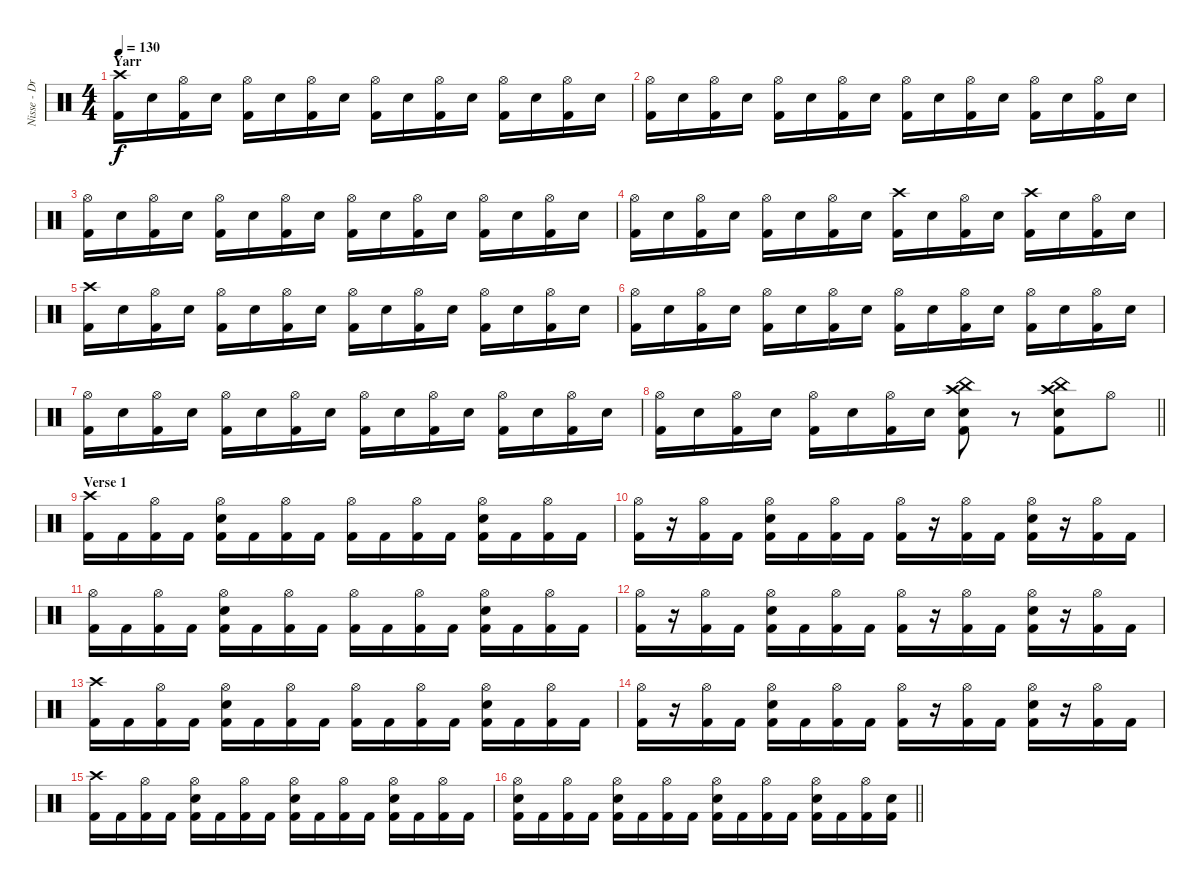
\track ("Nisse - Drums" "Nisse - Dr") {instrument percussion}
\staff {score}
\articulation defaults
\ts (4 4)
\section ("" "Yarr")
\tempo 130
\clef neutral
\ks c
("Crash high (hit)" "Kick (hit) 2").16{dy f} "Electric Snare (hit)".16 ("Hi-Hat (open)" "Kick (hit) 2").16 "Electric Snare (hit)".16 ("Hi-Hat (open)" "Kick (hit) 2").16 "Electric Snare (hit)".16 ("Hi-Hat (open)" "Kick (hit) 2").16 "Electric Snare (hit)".16 ("Hi-Hat (open)" "Kick (hit) 2").16 "Electric Snare (hit)".16 ("Hi-Hat (open)" "Kick (hit) 2").16 "Electric Snare (hit)".16 ("Hi-Hat (open)" "Kick (hit) 2").16 "Electric Snare (hit)".16 ("Hi-Hat (open)" "Kick (hit) 2").16 "Electric Snare (hit)".16 |
("Hi-Hat (open)" "Kick (hit) 2").16 "Electric Snare (hit)".16 ("Hi-Hat (open)" "Kick (hit) 2").16 "Electric Snare (hit)".16 ("Hi-Hat (open)" "Kick (hit) 2").16 "Electric Snare (hit)".16 ("Hi-Hat (open)" "Kick (hit) 2").16 "Electric Snare (hit)".16 ("Hi-Hat (open)" "Kick (hit) 2").16 "Electric Snare (hit)".16 ("Hi-Hat (open)" "Kick (hit) 2").16 "Electric Snare (hit)".16 ("Hi-Hat (open)" "Kick (hit) 2").16 "Electric Snare (hit)".16 ("Hi-Hat (open)" "Kick (hit) 2").16 "Electric Snare (hit)".16 |
("Hi-Hat (open)" "Kick (hit) 2").16 "Electric Snare (hit)".16 ("Hi-Hat (open)" "Kick (hit) 2").16 "Electric Snare (hit)".16 ("Hi-Hat (open)" "Kick (hit) 2").16 "Electric Snare (hit)".16 ("Hi-Hat (open)" "Kick (hit) 2").16 "Electric Snare (hit)".16 ("Hi-Hat (open)" "Kick (hit) 2").16 "Electric Snare (hit)".16 ("Hi-Hat (open)" "Kick (hit) 2").16 "Electric Snare (hit)".16 ("Hi-Hat (open)" "Kick (hit) 2").16 "Electric Snare (hit)".16 ("Hi-Hat (open)" "Kick (hit) 2").16 "Electric Snare (hit)".16 |
("Hi-Hat (open)" "Kick (hit) 2").16 "Electric Snare (hit)".16 ("Hi-Hat (open)" "Kick (hit) 2").16 "Electric Snare (hit)".16 ("Hi-Hat (open)" "Kick (hit) 2").16 "Electric Snare (hit)".16 ("Hi-Hat (open)" "Kick (hit) 2").16 "Electric Snare (hit)".16 ("Crash high (hit)" "Kick (hit) 2").16 "Electric Snare (hit)".16 ("Hi-Hat (open)" "Kick (hit) 2").16 "Electric Snare (hit)".16 ("Crash high (hit)" "Kick (hit) 2").16 "Electric Snare (hit)".16 ("Hi-Hat (open)" "Kick (hit) 2").16 "Electric Snare (hit)".16 |
("Crash high (hit)" "Kick (hit) 2").16 "Electric Snare (hit)".16 ("Hi-Hat (open)" "Kick (hit) 2").16 "Electric Snare (hit)".16 ("Hi-Hat (open)" "Kick (hit) 2").16 "Electric Snare (hit)".16 ("Hi-Hat (open)" "Kick (hit) 2").16 "Electric Snare (hit)".16 ("Hi-Hat (open)" "Kick (hit) 2").16 "Electric Snare (hit)".16 ("Hi-Hat (open)" "Kick (hit) 2").16 "Electric Snare (hit)".16 ("Hi-Hat (open)" "Kick (hit) 2").16 "Electric Snare (hit)".16 ("Hi-Hat (open)" "Kick (hit) 2").16 "Electric Snare (hit)".16 |
("Hi-Hat (open)" "Kick (hit) 2").16 "Electric Snare (hit)".16 ("Hi-Hat (open)" "Kick (hit) 2").16 "Electric Snare (hit)".16 ("Hi-Hat (open)" "Kick (hit) 2").16 "Electric Snare (hit)".16 ("Hi-Hat (open)" "Kick (hit) 2").16 "Electric Snare (hit)".16 ("Hi-Hat (open)" "Kick (hit) 2").16 "Electric Snare (hit)".16 ("Hi-Hat (open)" "Kick (hit) 2").16 "Electric Snare (hit)".16 ("Hi-Hat (open)" "Kick (hit) 2").16 "Electric Snare (hit)".16 ("Hi-Hat (open)" "Kick (hit) 2").16 "Electric Snare (hit)".16 |
("Hi-Hat (open)" "Kick (hit) 2").16 "Electric Snare (hit)".16 ("Hi-Hat (open)" "Kick (hit) 2").16 "Electric Snare (hit)".16 ("Hi-Hat (open)" "Kick (hit) 2").16 "Electric Snare (hit)".16 ("Hi-Hat (open)" "Kick (hit) 2").16 "Electric Snare (hit)".16 ("Hi-Hat (open)" "Kick (hit) 2").16 "Electric Snare (hit)".16 ("Hi-Hat (open)" "Kick (hit) 2").16 "Electric Snare (hit)".16 ("Hi-Hat (open)" "Kick (hit) 2").16 "Electric Snare (hit)".16 ("Hi-Hat (open)" "Kick (hit) 2").16 "Electric Snare (hit)".16 |
\barLineRight lightlight
("Hi-Hat (open)" "Kick (hit) 2").16 "Electric Snare (hit)".16 ("Hi-Hat (open)" "Kick (hit) 2").16 "Electric Snare (hit)".16 ("Hi-Hat (open)" "Kick (hit) 2").16 "Electric Snare (hit)".16 ("Hi-Hat (open)" "Kick (hit) 2").16 "Electric Snare (hit)".16 ("Crash high (hit)" "China (hit)" "Electric Snare (hit)" "Kick (hit) 2").8 r.8 ("Crash high (hit)" "China (hit)" "Electric Snare (hit)" "Kick (hit) 2").8 "Hi-Hat (open)".8 |
\section ("" "Verse 1")
("Crash high (hit)" "Kick (hit) 2").16 "Kick (hit) 2".16 ("Hi-Hat (open)" "Kick (hit) 2").16 "Kick (hit) 2".16 ("Hi-Hat (open)" "Electric Snare (hit)" "Kick (hit) 2").16 "Kick (hit) 2".16 ("Hi-Hat (open)" "Kick (hit) 2").16 "Kick (hit) 2".16 ("Hi-Hat (open)" "Kick (hit) 2").16 "Kick (hit) 2".16 ("Hi-Hat (open)" "Kick (hit) 2").16 "Kick (hit) 2".16 ("Hi-Hat (open)" "Electric Snare (hit)" "Kick (hit) 2").16 "Kick (hit) 2".16 ("Hi-Hat (open)" "Kick (hit) 2").16 "Kick (hit) 2".16 |
("Hi-Hat (open)" "Kick (hit) 2").16 r.16 ("Hi-Hat (open)" "Kick (hit) 2").16 "Kick (hit) 2".16 ("Hi-Hat (open)" "Electric Snare (hit)" "Kick (hit) 2").16 "Kick (hit) 2".16 ("Hi-Hat (open)" "Kick (hit) 2").16 "Kick (hit) 2".16 ("Hi-Hat (open)" "Kick (hit) 2").16 r.16 ("Hi-Hat (open)" "Kick (hit) 2").16 "Kick (hit) 2".16 ("Hi-Hat (open)" "Electric Snare (hit)" "Kick (hit) 2").16 r.16 ("Hi-Hat (open)" "Kick (hit) 2").16 "Kick (hit) 2".16 |
("Hi-Hat (open)" "Kick (hit) 2").16 "Kick (hit) 2".16 ("Hi-Hat (open)" "Kick (hit) 2").16 "Kick (hit) 2".16 ("Hi-Hat (open)" "Electric Snare (hit)" "Kick (hit) 2").16 "Kick (hit) 2".16 ("Hi-Hat (open)" "Kick (hit) 2").16 "Kick (hit) 2".16 ("Hi-Hat (open)" "Kick (hit) 2").16 "Kick (hit) 2".16 ("Hi-Hat (open)" "Kick (hit) 2").16 "Kick (hit) 2".16 ("Hi-Hat (open)" "Electric Snare (hit)" "Kick (hit) 2").16 "Kick (hit) 2".16 ("Hi-Hat (open)" "Kick (hit) 2").16 "Kick (hit) 2".16 |
("Hi-Hat (open)" "Kick (hit) 2").16 r.16 ("Hi-Hat (open)" "Kick (hit) 2").16 "Kick (hit) 2".16 ("Hi-Hat (open)" "Electric Snare (hit)" "Kick (hit) 2").16 "Kick (hit) 2".16 ("Hi-Hat (open)" "Kick (hit) 2").16 "Kick (hit) 2".16 ("Hi-Hat (open)" "Kick (hit) 2").16 r.16 ("Hi-Hat (open)" "Kick (hit) 2").16 "Kick (hit) 2".16 ("Hi-Hat (open)" "Electric Snare (hit)" "Kick (hit) 2").16 r.16 ("Hi-Hat (open)" "Kick (hit) 2").16 "Kick (hit) 2".16 |
("Crash high (hit)" "Kick (hit) 2").16 "Kick (hit) 2".16 ("Hi-Hat (open)" "Kick (hit) 2").16 "Kick (hit) 2".16 ("Hi-Hat (open)" "Electric Snare (hit)" "Kick (hit) 2").16 "Kick (hit) 2".16 ("Hi-Hat (open)" "Kick (hit) 2").16 "Kick (hit) 2".16 ("Hi-Hat (open)" "Kick (hit) 2").16 "Kick (hit) 2".16 ("Hi-Hat (open)" "Kick (hit) 2").16 "Kick (hit) 2".16 ("Hi-Hat (open)" "Electric Snare (hit)" "Kick (hit) 2").16 "Kick (hit) 2".16 ("Hi-Hat (open)" "Kick (hit) 2").16 "Kick (hit) 2".16 |
("Hi-Hat (open)" "Kick (hit) 2").16 r.16 ("Hi-Hat (open)" "Kick (hit) 2").16 "Kick (hit) 2".16 ("Hi-Hat (open)" "Electric Snare (hit)" "Kick (hit) 2").16 "Kick (hit) 2".16 ("Hi-Hat (open)" "Kick (hit) 2").16 "Kick (hit) 2".16 ("Hi-Hat (open)" "Kick (hit) 2").16 r.16 ("Hi-Hat (open)" "Kick (hit) 2").16 "Kick (hit) 2".16 ("Hi-Hat (open)" "Electric Snare (hit)" "Kick (hit) 2").16 r.16 ("Hi-Hat (open)" "Kick (hit) 2").16 "Kick (hit) 2".16 |
("Crash high (hit)" "Kick (hit) 2").16 "Kick (hit) 2".16 ("Hi-Hat (open)" "Kick (hit) 2").16 "Kick (hit) 2".16 ("Hi-Hat (open)" "Electric Snare (hit)" "Kick (hit) 2").16 "Kick (hit) 2".16 ("Hi-Hat (open)" "Kick (hit) 2").16 "Kick (hit) 2".16 ("Hi-Hat (open)" "Electric Snare (hit)" "Kick (hit) 2").16 "Kick (hit) 2".16 ("Hi-Hat (open)" "Kick (hit) 2").16 "Kick (hit) 2".16 ("Hi-Hat (open)" "Electric Snare (hit)" "Kick (hit) 2").16 "Kick (hit) 2".16 ("Hi-Hat (open)" "Kick (hit) 2").16 "Kick (hit) 2".16 |
\barLineRight lightlight
("Hi-Hat (open)" "Electric Snare (hit)" "Kick (hit) 2").16 "Kick (hit) 2".16 ("Hi-Hat (open)" "Kick (hit) 2").16 "Kick (hit) 2".16 ("Hi-Hat (open)" "Electric Snare (hit)" "Kick (hit) 2").16 "Kick (hit) 2".16 ("Hi-Hat (open)" "Kick (hit) 2").16 "Kick (hit) 2".16 ("Hi-Hat (open)" "Electric Snare (hit)" "Kick (hit) 2").16 "Kick (hit) 2".16 ("Hi-Hat (open)" "Kick (hit) 2").16 "Kick (hit) 2".16 ("Hi-Hat (open)" "Electric Snare (hit)" "Kick (hit) 2").16 "Kick (hit) 2".16 ("Hi-Hat (open)" "Kick (hit) 2").16 ("Electric Snare (hit)" "Kick (hit) 2").16
